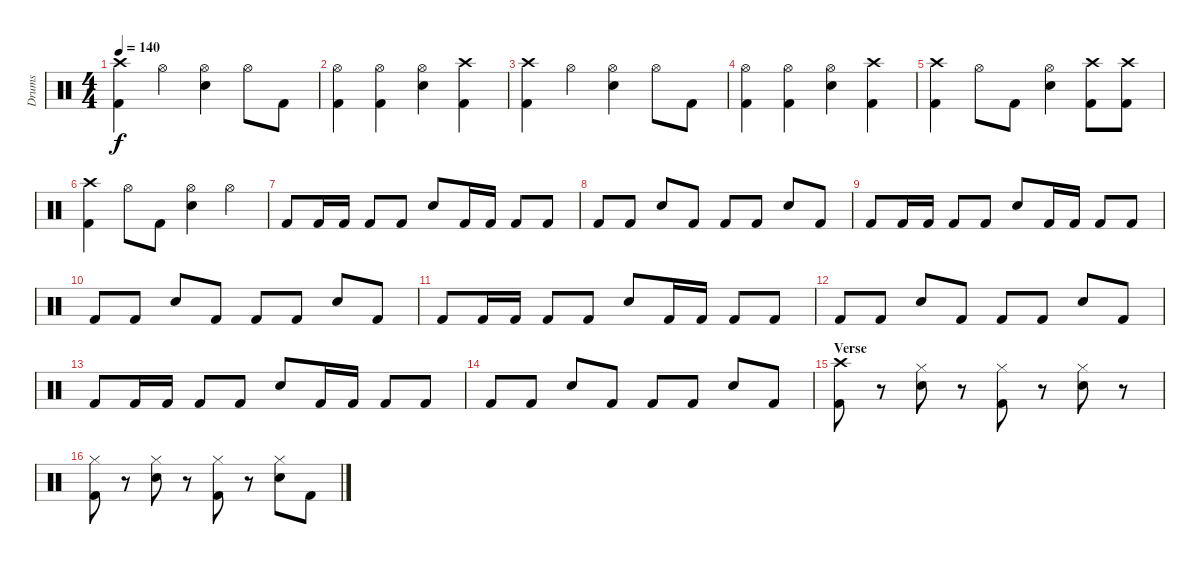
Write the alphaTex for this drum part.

\track ("Drums" "Drums") {instrument percussion}
\staff {score}
\articulation defaults
\ts (4 4)
\tempo 140
\clef neutral
\ks c
("Crash high (hit)" "Kick (hit) 2").4{dy f} "Hi-Hat (open)".4 ("Hi-Hat (open)" "Electric Snare (hit)").4 "Hi-Hat (open)".8 "Kick (hit) 2".8 |
("Hi-Hat (open)" "Kick (hit) 2").4 ("Hi-Hat (open)" "Kick (hit) 2").4 ("Hi-Hat (open)" "Electric Snare (hit)").4 ("Crash high (hit)" "Kick (hit) 2").4 |
("Crash high (hit)" "Kick (hit) 2").4 "Hi-Hat (open)".4 ("Hi-Hat (open)" "Electric Snare (hit)").4 "Hi-Hat (open)".8 "Kick (hit) 2".8 |
("Hi-Hat (open)" "Kick (hit) 2").4 ("Hi-Hat (open)" "Kick (hit) 2").4 ("Hi-Hat (open)" "Electric Snare (hit)").4 ("Crash high (hit)" "Kick (hit) 2").4 |
("Crash high (hit)" "Kick (hit) 2").4 "Hi-Hat (open)".8 "Kick (hit) 2".8 ("Hi-Hat (open)" "Electric Snare (hit)").4 ("Crash high (hit)" "Kick (hit) 2").8 ("Crash high (hit)" "Kick (hit) 2").8 |
("Crash high (hit)" "Kick (hit) 2").4 "Hi-Hat (open)".8 "Kick (hit) 2".8 ("Hi-Hat (open)" "Electric Snare (hit)").4 "Hi-Hat (open)".4 |
"Kick (hit) 2".8 "Kick (hit) 2".16 "Kick (hit) 2".16 "Kick (hit) 2".8 "Kick (hit) 2".8 "Electric Snare (hit)".8 "Kick (hit) 2".16 "Kick (hit) 2".16 "Kick (hit) 2".8 "Kick (hit) 2".8 |
"Kick (hit) 2".8 "Kick (hit) 2".8 "Electric Snare (hit)".8 "Kick (hit) 2".8 "Kick (hit) 2".8 "Kick (hit) 2".8 "Electric Snare (hit)".8 "Kick (hit) 2".8 |
"Kick (hit) 2".8 "Kick (hit) 2".16 "Kick (hit) 2".16 "Kick (hit) 2".8 "Kick (hit) 2".8 "Electric Snare (hit)".8 "Kick (hit) 2".16 "Kick (hit) 2".16 "Kick (hit) 2".8 "Kick (hit) 2".8 |
"Kick (hit) 2".8 "Kick (hit) 2".8 "Electric Snare (hit)".8 "Kick (hit) 2".8 "Kick (hit) 2".8 "Kick (hit) 2".8 "Electric Snare (hit)".8 "Kick (hit) 2".8 |
"Kick (hit) 2".8 "Kick (hit) 2".16 "Kick (hit) 2".16 "Kick (hit) 2".8 "Kick (hit) 2".8 "Electric Snare (hit)".8 "Kick (hit) 2".16 "Kick (hit) 2".16 "Kick (hit) 2".8 "Kick (hit) 2".8 |
"Kick (hit) 2".8 "Kick (hit) 2".8 "Electric Snare (hit)".8 "Kick (hit) 2".8 "Kick (hit) 2".8 "Kick (hit) 2".8 "Electric Snare (hit)".8 "Kick (hit) 2".8 |
"Kick (hit) 2".8 "Kick (hit) 2".16 "Kick (hit) 2".16 "Kick (hit) 2".8 "Kick (hit) 2".8 "Electric Snare (hit)".8 "Kick (hit) 2".16 "Kick (hit) 2".16 "Kick (hit) 2".8 "Kick (hit) 2".8 |
"Kick (hit) 2".8 "Kick (hit) 2".8 "Electric Snare (hit)".8 "Kick (hit) 2".8 "Kick (hit) 2".8 "Kick (hit) 2".8 "Electric Snare (hit)".8 "Kick (hit) 2".8 |
\section ("" "Verse")
("Crash high (hit)" "Kick (hit) 2").8 r.8 ("Hi-Hat (closed)" "Electric Snare (hit)").8 r.8 ("Hi-Hat (closed)" "Kick (hit) 2").8 r.8 ("Hi-Hat (closed)" "Electric Snare (hit)").8 r.8 |
("Hi-Hat (closed)" "Kick (hit) 2").8 r.8 ("Hi-Hat (closed)" "Electric Snare (hit)").8 r.8 ("Hi-Hat (closed)" "Kick (hit) 2").8 r.8 ("Hi-Hat (closed)" "Electric Snare (hit)").8 "Kick (hit) 2".8
